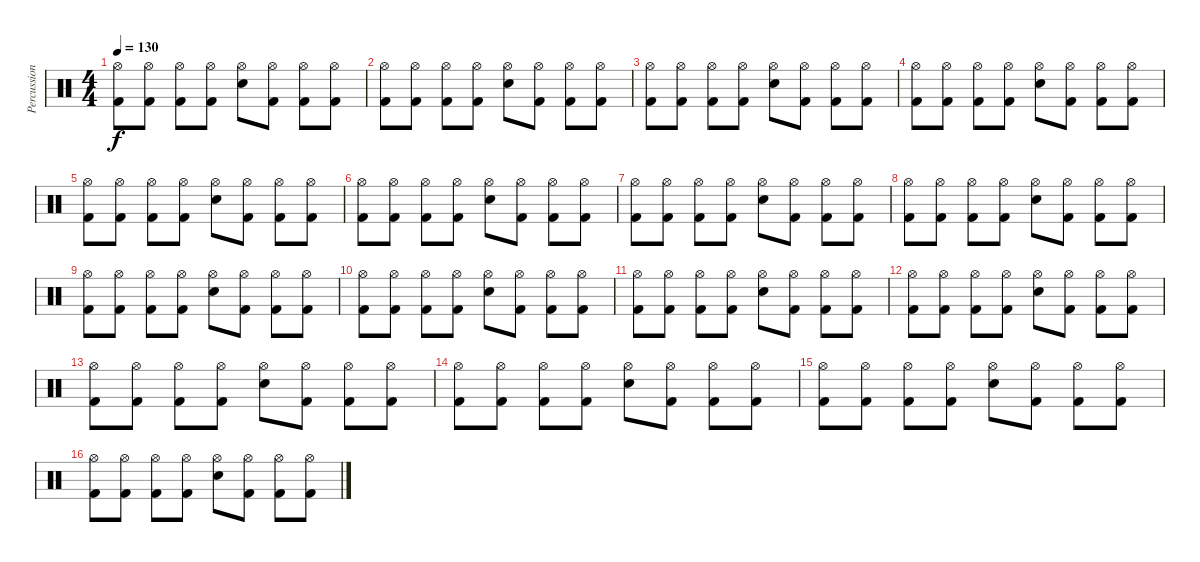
\track ("Percussion" "Percussion") {instrument percussion}
\staff {score}
\articulation defaults
\ts (4 4)
\tempo 130
\clef neutral
\ks c
("Hi-Hat (open)" "Kick (hit) 2").8{dy f} ("Hi-Hat (open)" "Kick (hit) 2").8 ("Hi-Hat (open)" "Kick (hit) 2").8 ("Hi-Hat (open)" "Kick (hit) 2").8 ("Hi-Hat (open)" "Snare (hit) 2").8 ("Hi-Hat (open)" "Kick (hit) 2").8 ("Hi-Hat (open)" "Kick (hit) 2").8 ("Hi-Hat (open)" "Kick (hit) 2").8 |
("Hi-Hat (open)" "Kick (hit) 2").8 ("Hi-Hat (open)" "Kick (hit) 2").8 ("Hi-Hat (open)" "Kick (hit) 2").8 ("Hi-Hat (open)" "Kick (hit) 2").8 ("Hi-Hat (open)" "Snare (hit) 2").8 ("Hi-Hat (open)" "Kick (hit) 2").8 ("Hi-Hat (open)" "Kick (hit) 2").8 ("Hi-Hat (open)" "Kick (hit) 2").8 |
("Hi-Hat (open)" "Kick (hit) 2").8 ("Hi-Hat (open)" "Kick (hit) 2").8 ("Hi-Hat (open)" "Kick (hit) 2").8 ("Hi-Hat (open)" "Kick (hit) 2").8 ("Hi-Hat (open)" "Snare (hit) 2").8 ("Hi-Hat (open)" "Kick (hit) 2").8 ("Hi-Hat (open)" "Kick (hit) 2").8 ("Hi-Hat (open)" "Kick (hit) 2").8 |
("Hi-Hat (open)" "Kick (hit) 2").8 ("Hi-Hat (open)" "Kick (hit) 2").8 ("Hi-Hat (open)" "Kick (hit) 2").8 ("Hi-Hat (open)" "Kick (hit) 2").8 ("Hi-Hat (open)" "Snare (hit) 2").8 ("Hi-Hat (open)" "Kick (hit) 2").8 ("Hi-Hat (open)" "Kick (hit) 2").8 ("Hi-Hat (open)" "Kick (hit) 2").8 |
("Hi-Hat (open)" "Kick (hit) 2").8 ("Hi-Hat (open)" "Kick (hit) 2").8 ("Hi-Hat (open)" "Kick (hit) 2").8 ("Hi-Hat (open)" "Kick (hit) 2").8 ("Hi-Hat (open)" "Snare (hit) 2").8 ("Hi-Hat (open)" "Kick (hit) 2").8 ("Hi-Hat (open)" "Kick (hit) 2").8 ("Hi-Hat (open)" "Kick (hit) 2").8 |
("Hi-Hat (open)" "Kick (hit) 2").8 ("Hi-Hat (open)" "Kick (hit) 2").8 ("Hi-Hat (open)" "Kick (hit) 2").8 ("Hi-Hat (open)" "Kick (hit) 2").8 ("Hi-Hat (open)" "Snare (hit) 2").8 ("Hi-Hat (open)" "Kick (hit) 2").8 ("Hi-Hat (open)" "Kick (hit) 2").8 ("Hi-Hat (open)" "Kick (hit) 2").8 |
("Hi-Hat (open)" "Kick (hit) 2").8 ("Hi-Hat (open)" "Kick (hit) 2").8 ("Hi-Hat (open)" "Kick (hit) 2").8 ("Hi-Hat (open)" "Kick (hit) 2").8 ("Hi-Hat (open)" "Snare (hit) 2").8 ("Hi-Hat (open)" "Kick (hit) 2").8 ("Hi-Hat (open)" "Kick (hit) 2").8 ("Hi-Hat (open)" "Kick (hit) 2").8 |
("Hi-Hat (open)" "Kick (hit) 2").8 ("Hi-Hat (open)" "Kick (hit) 2").8 ("Hi-Hat (open)" "Kick (hit) 2").8 ("Hi-Hat (open)" "Kick (hit) 2").8 ("Hi-Hat (open)" "Snare (hit) 2").8 ("Hi-Hat (open)" "Kick (hit) 2").8 ("Hi-Hat (open)" "Kick (hit) 2").8 ("Hi-Hat (open)" "Kick (hit) 2").8 |
("Hi-Hat (open)" "Kick (hit) 2").8 ("Hi-Hat (open)" "Kick (hit) 2").8 ("Hi-Hat (open)" "Kick (hit) 2").8 ("Hi-Hat (open)" "Kick (hit) 2").8 ("Hi-Hat (open)" "Snare (hit) 2").8 ("Hi-Hat (open)" "Kick (hit) 2").8 ("Hi-Hat (open)" "Kick (hit) 2").8 ("Hi-Hat (open)" "Kick (hit) 2").8 |
("Hi-Hat (open)" "Kick (hit) 2").8 ("Hi-Hat (open)" "Kick (hit) 2").8 ("Hi-Hat (open)" "Kick (hit) 2").8 ("Hi-Hat (open)" "Kick (hit) 2").8 ("Hi-Hat (open)" "Snare (hit) 2").8 ("Hi-Hat (open)" "Kick (hit) 2").8 ("Hi-Hat (open)" "Kick (hit) 2").8 ("Hi-Hat (open)" "Kick (hit) 2").8 |
("Hi-Hat (open)" "Kick (hit) 2").8 ("Hi-Hat (open)" "Kick (hit) 2").8 ("Hi-Hat (open)" "Kick (hit) 2").8 ("Hi-Hat (open)" "Kick (hit) 2").8 ("Hi-Hat (open)" "Snare (hit) 2").8 ("Hi-Hat (open)" "Kick (hit) 2").8 ("Hi-Hat (open)" "Kick (hit) 2").8 ("Hi-Hat (open)" "Kick (hit) 2").8 |
("Hi-Hat (open)" "Kick (hit) 2").8 ("Hi-Hat (open)" "Kick (hit) 2").8 ("Hi-Hat (open)" "Kick (hit) 2").8 ("Hi-Hat (open)" "Kick (hit) 2").8 ("Hi-Hat (open)" "Snare (hit) 2").8 ("Hi-Hat (open)" "Kick (hit) 2").8 ("Hi-Hat (open)" "Kick (hit) 2").8 ("Hi-Hat (open)" "Kick (hit) 2").8 |
("Hi-Hat (open)" "Kick (hit) 2").8 ("Hi-Hat (open)" "Kick (hit) 2").8 ("Hi-Hat (open)" "Kick (hit) 2").8 ("Hi-Hat (open)" "Kick (hit) 2").8 ("Hi-Hat (open)" "Snare (hit) 2").8 ("Hi-Hat (open)" "Kick (hit) 2").8 ("Hi-Hat (open)" "Kick (hit) 2").8 ("Hi-Hat (open)" "Kick (hit) 2").8 |
("Hi-Hat (open)" "Kick (hit) 2").8 ("Hi-Hat (open)" "Kick (hit) 2").8 ("Hi-Hat (open)" "Kick (hit) 2").8 ("Hi-Hat (open)" "Kick (hit) 2").8 ("Hi-Hat (open)" "Snare (hit) 2").8 ("Hi-Hat (open)" "Kick (hit) 2").8 ("Hi-Hat (open)" "Kick (hit) 2").8 ("Hi-Hat (open)" "Kick (hit) 2").8 |
("Hi-Hat (open)" "Kick (hit) 2").8 ("Hi-Hat (open)" "Kick (hit) 2").8 ("Hi-Hat (open)" "Kick (hit) 2").8 ("Hi-Hat (open)" "Kick (hit) 2").8 ("Hi-Hat (open)" "Snare (hit) 2").8 ("Hi-Hat (open)" "Kick (hit) 2").8 ("Hi-Hat (open)" "Kick (hit) 2").8 ("Hi-Hat (open)" "Kick (hit) 2").8 |
("Hi-Hat (open)" "Kick (hit) 2").8 ("Hi-Hat (open)" "Kick (hit) 2").8 ("Hi-Hat (open)" "Kick (hit) 2").8 ("Hi-Hat (open)" "Kick (hit) 2").8 ("Hi-Hat (open)" "Snare (hit) 2").8 ("Hi-Hat (open)" "Kick (hit) 2").8 ("Hi-Hat (open)" "Kick (hit) 2").8 ("Hi-Hat (open)" "Kick (hit) 2").8
